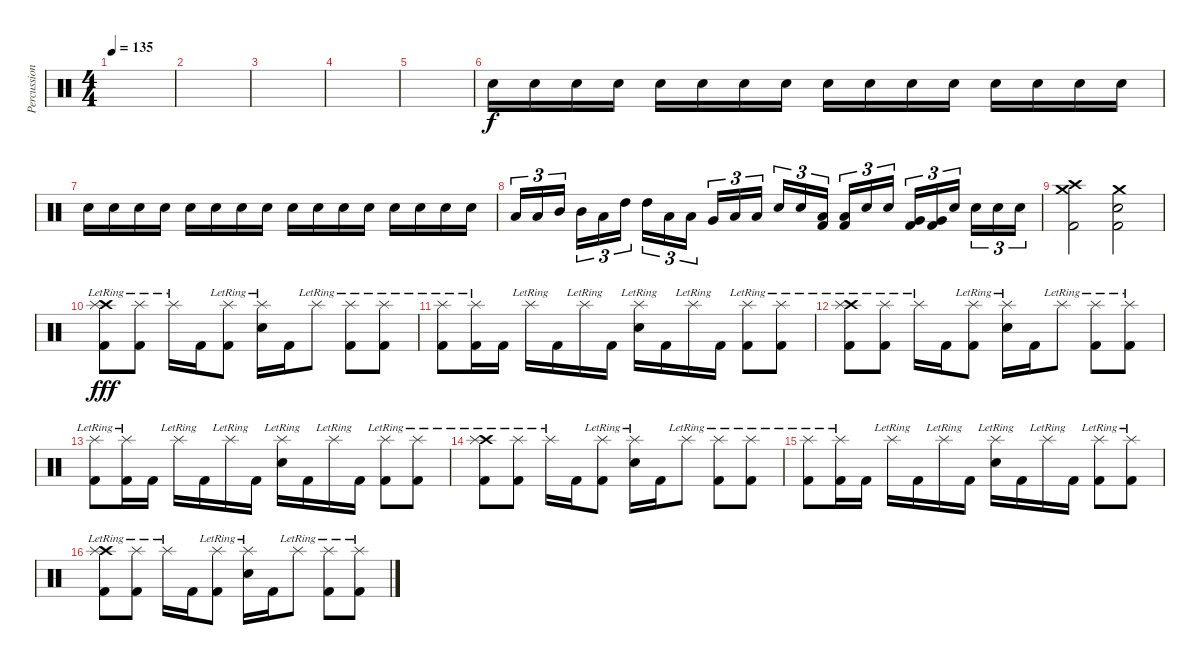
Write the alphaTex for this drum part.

\track ("Percussion" "Percussion") {instrument percussion}
\staff {score}
\articulation defaults
\ts (4 4)
\tempo 135
\clef neutral
\ks c
|
|
|
|
|
"Electric Snare (hit)".16{volume 14} "Electric Snare (hit)".16 "Electric Snare (hit)".16 "Electric Snare (hit)".16 "Electric Snare (hit)".16 "Electric Snare (hit)".16 "Electric Snare (hit)".16 "Electric Snare (hit)".16 "Electric Snare (hit)".16 "Electric Snare (hit)".16 "Electric Snare (hit)".16 "Electric Snare (hit)".16 "Electric Snare (hit)".16 "Electric Snare (hit)".16 "Electric Snare (hit)".16 "Electric Snare (hit)".16 |
"Electric Snare (hit)".16 "Electric Snare (hit)".16 "Electric Snare (hit)".16 "Electric Snare (hit)".16 "Electric Snare (hit)".16 "Electric Snare (hit)".16 "Electric Snare (hit)".16 "Electric Snare (hit)".16 "Electric Snare (hit)".16 "Electric Snare (hit)".16 "Electric Snare (hit)".16 "Electric Snare (hit)".16 "Electric Snare (hit)".16 "Electric Snare (hit)".16 "Electric Snare (hit)".16 "Electric Snare (hit)".16 |
"Low Tom (hit)".16{tu (3 2)} "Low Tom (hit)".16{tu (3 2)} "Mid Tom (hit)".16{tu (3 2) beam splitsecondary} "Mid Tom (hit)".16{tu (3 2)} "Low Tom (hit)".16{tu (3 2)} "High Tom (hit)".16{tu (3 2)} "High Tom (hit)".16{tu (3 2)} "Low Tom (hit)".16{tu (3 2)} "Low Floor Tom (hit)".16{tu (3 2) beam splitsecondary} "Very Low Tom (hit)".16{tu (3 2)} "Low Tom (hit)".16{tu (3 2)} "Low Tom (hit)".16{tu (3 2)} "Electric Snare (hit)".16{tu (3 2)} "Electric Snare (hit)".16{tu (3 2)} ("Low Floor Tom (hit)" "Kick (hit) 2").16{tu (3 2) beam splitsecondary} ("Low Floor Tom (hit)" "Kick (hit) 2").16{tu (3 2)} "Electric Snare (hit)".16{tu (3 2)} "Electric Snare (hit)".16{tu (3 2)} ("Very Low Tom (hit)" "Kick (hit) 2").16{tu (3 2)} ("Very Low Tom (hit)" "Kick (hit) 2").16{tu (3 2)} "Electric Snare (hit)".16{tu (3 2) beam splitsecondary} "Electric Snare (hit)".16{tu (3 2)} "Electric Snare (hit)".16{tu (3 2)} "Electric Snare (hit)".16{tu (3 2)} |
("Crash medium (hit)" "Crash high (hit)" "Kick (hit) 2").2 ("Crash medium (hit)" "Electric Snare (hit)" "Kick (hit) 2").2 |
("Crash high (hit)"{lr} "Splash (hit)"{lr} "Kick (hit) 2").8{dy fff} ("Splash (hit)"{lr} "Kick (hit) 2").8 "Splash (hit)"{lr}.16 "Kick (hit) 2".16 ("Splash (hit)"{lr} "Kick (hit) 2").8 ("Splash (hit)"{lr} "Electric Snare (hit)").16 "Kick (hit) 2".16 "Splash (hit)"{lr}.8 ("Splash (hit)"{lr} "Kick (hit) 2").8 ("Splash (hit)"{lr} "Kick (hit) 2").8 |
("Splash (hit)"{lr} "Kick (hit) 2").8 ("Splash (hit)"{lr} "Kick (hit) 2").16 "Kick (hit) 2".16 "Splash (hit)"{lr}.16 "Kick (hit) 2".16 "Splash (hit)"{lr}.16 "Kick (hit) 2".16 ("Splash (hit)"{lr} "Electric Snare (hit)").16 "Kick (hit) 2".16 "Splash (hit)"{lr}.16 "Kick (hit) 2".16 ("Splash (hit)"{lr} "Kick (hit) 2").8 ("Splash (hit)"{lr} "Kick (hit) 2").8 |
("Crash high (hit)"{lr} "Splash (hit)"{lr} "Kick (hit) 2").8 ("Splash (hit)"{lr} "Kick (hit) 2").8 "Splash (hit)"{lr}.16 "Kick (hit) 2".16 ("Splash (hit)"{lr} "Kick (hit) 2").8 ("Splash (hit)"{lr} "Electric Snare (hit)").16 "Kick (hit) 2".16 "Splash (hit)"{lr}.8 ("Splash (hit)"{lr} "Kick (hit) 2").8 ("Splash (hit)"{lr} "Kick (hit) 2").8 |
("Splash (hit)"{lr} "Kick (hit) 2").8 ("Splash (hit)"{lr} "Kick (hit) 2").16 "Kick (hit) 2".16 "Splash (hit)"{lr}.16 "Kick (hit) 2".16 "Splash (hit)"{lr}.16 "Kick (hit) 2".16 ("Splash (hit)"{lr} "Electric Snare (hit)").16 "Kick (hit) 2".16 "Splash (hit)"{lr}.16 "Kick (hit) 2".16 ("Splash (hit)"{lr} "Kick (hit) 2").8 ("Splash (hit)"{lr} "Kick (hit) 2").8 |
("Crash high (hit)"{lr} "Splash (hit)"{lr} "Kick (hit) 2").8 ("Splash (hit)"{lr} "Kick (hit) 2").8 "Splash (hit)"{lr}.16 "Kick (hit) 2".16 ("Splash (hit)"{lr} "Kick (hit) 2").8 ("Splash (hit)"{lr} "Electric Snare (hit)").16 "Kick (hit) 2".16 "Splash (hit)"{lr}.8 ("Splash (hit)"{lr} "Kick (hit) 2").8 ("Splash (hit)"{lr} "Kick (hit) 2").8 |
("Splash (hit)"{lr} "Kick (hit) 2").8 ("Splash (hit)"{lr} "Kick (hit) 2").16 "Kick (hit) 2".16 "Splash (hit)"{lr}.16 "Kick (hit) 2".16 "Splash (hit)"{lr}.16 "Kick (hit) 2".16 ("Splash (hit)"{lr} "Electric Snare (hit)").16 "Kick (hit) 2".16 "Splash (hit)"{lr}.16 "Kick (hit) 2".16 ("Splash (hit)"{lr} "Kick (hit) 2").8 ("Splash (hit)"{lr} "Kick (hit) 2").8 |
("Crash high (hit)"{lr} "Splash (hit)"{lr} "Kick (hit) 2").8 ("Splash (hit)"{lr} "Kick (hit) 2").8 "Splash (hit)"{lr}.16 "Kick (hit) 2".16 ("Splash (hit)"{lr} "Kick (hit) 2").8 ("Splash (hit)"{lr} "Electric Snare (hit)").16 "Kick (hit) 2".16 "Splash (hit)"{lr}.8 ("Splash (hit)"{lr} "Kick (hit) 2").8 ("Splash (hit)"{lr} "Kick (hit) 2").8
